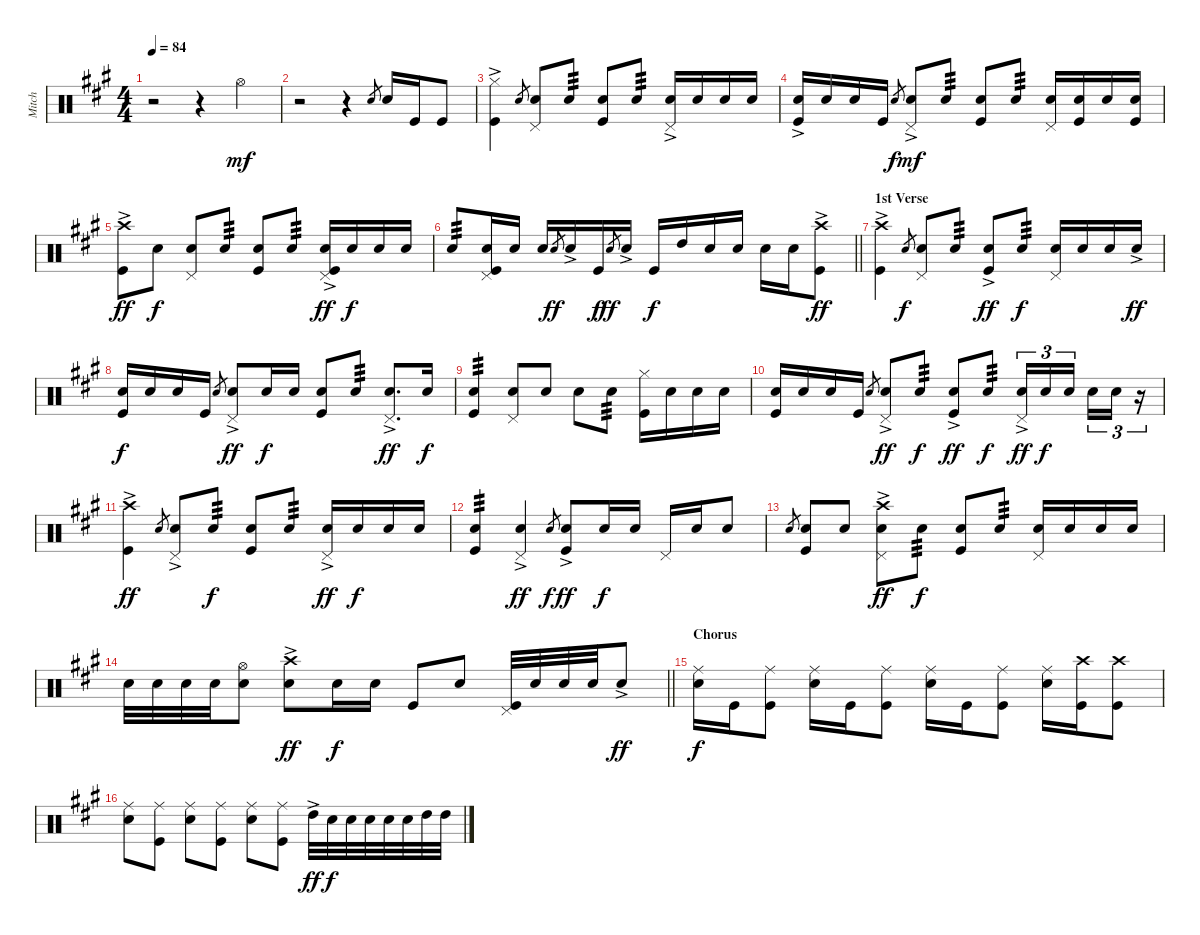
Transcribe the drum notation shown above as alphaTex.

\track ("Mitch" "Mitch") {instrument percussion}
\staff {score}
\articulation defaults
\ts (4 4)
\tempo 84
\clef neutral
\ks a
r.2{dy f} r.4 "Hi-Hat (open)".4{dy mf} |
r.2 r.4 "Snare (hit) 2".8{gr} "Snare (hit) 2".16 "Kick (hit)".16 "Kick (hit)".8 |
("Hi-Hat (closed)"{ac} "Kick (hit)").4 "Snare (hit) 2".8{gr} ("Snare (hit) 2" "Pedal Hi-Hat (hit)").8 "Snare (hit) 2".8{tp 3} ("Snare (hit) 2" "Kick (hit)").8 "Snare (hit) 2".8{tp 3} ("Snare (hit) 2"{ac} "Pedal Hi-Hat (hit)").16 "Snare (hit) 2".16 "Snare (hit) 2".16 "Snare (hit) 2".16 |
("Snare (hit) 2"{ac} "Kick (hit)").16 "Snare (hit) 2".16 "Snare (hit) 2".16 "Kick (hit)".16 "Snare (hit) 2".8{gr dy f} ("Snare (hit) 2"{ac} "Pedal Hi-Hat (hit)").8{dy mf} "Snare (hit) 2".8{tp 3} ("Snare (hit) 2" "Kick (hit)").8 "Snare (hit) 2".8{tp 3} ("Snare (hit) 2" "Pedal Hi-Hat (hit)").16 ("Snare (hit) 2" "Kick (hit)").16 "Snare (hit) 2".16 ("Snare (hit) 2" "Kick (hit)").16 |
("Crash high (hit)"{ac} "Kick (hit)").8{dy ff} "Snare (hit) 2".8{dy f} ("Snare (hit) 2" "Pedal Hi-Hat (hit)").8 "Snare (hit) 2".8{tp 3} ("Snare (hit) 2" "Kick (hit)").8 "Snare (hit) 2".8{tp 3} ("Snare (hit) 2"{ac} "Kick (hit)" "Pedal Hi-Hat (hit)").16{dy ff} "Snare (hit) 2".16{dy f} "Snare (hit) 2".16 "Snare (hit) 2".16 |
\barLineRight lightlight "Snare (hit) 2".8{tp 3}
("Snare (hit) 2" "Kick (hit)" "Pedal Hi-Hat (hit)").16 "Snare (hit) 2".16 "Snare (hit) 2".16 "Snare (hit) 2".8{gr dy ff} "Snare (hit) 2"{ac}.16 "Kick (hit)".16{dy f} "Snare (hit) 2".8{gr dy ff} "Snare (hit) 2"{ac}.16 "Kick (hit)".16{dy f} "High Tom (hit)".16 "Snare (hit) 2".16 "Snare (hit) 2".16 "Snare (hit) 2".16 "Snare (hit) 2".16 ("Crash high (hit)"{ac} "Kick (hit)").8{dy ff} |
\section ("" "1st Verse")
("Crash high (hit)"{ac} "Kick (hit)").4 "Snare (hit) 2".8{gr dy f} ("Snare (hit) 2" "Pedal Hi-Hat (hit)").8 "Snare (hit) 2".8{tp 3} ("Snare (hit) 2"{ac} "Kick (hit)").8{dy ff} "Snare (hit) 2".8{tp 3 dy f} ("Snare (hit) 2" "Pedal Hi-Hat (hit)").16 "Snare (hit) 2".16 "Snare (hit) 2".16 "Snare (hit) 2"{ac}.16{dy ff} |
("Snare (hit) 2" "Kick (hit)").16{dy f} "Snare (hit) 2".16 "Snare (hit) 2".16 "Kick (hit)".16 "Snare (hit) 2".8{gr} ("Snare (hit) 2"{ac} "Pedal Hi-Hat (hit)").8{dy ff} "Snare (hit) 2".16{dy f} "Snare (hit) 2".16 ("Snare (hit) 2" "Kick (hit)").8 "Snare (hit) 2".8{tp 3} ("Snare (hit) 2"{ac} "Pedal Hi-Hat (hit)").8{d dy ff} "Snare (hit) 2".16{dy f} |
("Snare (hit) 2" "Kick (hit)").4{tp 3} ("Snare (hit) 2" "Pedal Hi-Hat (hit)").8 "Snare (hit) 2".8 "Snare (hit) 2".8 "Snare (hit) 2".8{tp 3} ("Hi-Hat (closed)" "Kick (hit)").16 "Snare (hit) 2".16 "Snare (hit) 2".16 "Snare (hit) 2".16 |
("Snare (hit) 2" "Kick (hit)").16 "Snare (hit) 2".16 "Snare (hit) 2".16 "Kick (hit)".16 "Snare (hit) 2".8{gr} ("Snare (hit) 2"{ac} "Pedal Hi-Hat (hit)").8{dy ff} "Snare (hit) 2".8{tp 3 dy f} ("Snare (hit) 2"{ac} "Kick (hit)").8{dy ff} "Snare (hit) 2".8{tp 3 dy f} ("Snare (hit) 2"{ac} "Pedal Hi-Hat (hit)").16{tu (3 2) dy ff} "Snare (hit) 2".16{tu (3 2) dy f} "Snare (hit) 2".16{tu (3 2) beam splitsecondary} "Snare (hit) 2".16{tu (3 2)} "Snare (hit) 2".16{tu (3 2)} r.16{tu (3 2)} |
("Crash high (hit)"{ac} "Kick (hit)").4{dy ff} "Snare (hit) 2".8{gr} ("Snare (hit) 2"{ac} "Pedal Hi-Hat (hit)").8 "Snare (hit) 2".8{tp 3 dy f} ("Snare (hit) 2" "Kick (hit)").8 "Snare (hit) 2".8{tp 3} ("Snare (hit) 2"{ac} "Pedal Hi-Hat (hit)").16{dy ff} "Snare (hit) 2".16{dy f} "Snare (hit) 2".16 "Snare (hit) 2".16 |
("Snare (hit) 2" "Kick (hit)").4{tp 3} ("Snare (hit) 2"{ac} "Pedal Hi-Hat (hit)").4{dy ff} "Snare (hit) 2".8{gr dy f} ("Snare (hit) 2"{ac} "Kick (hit)").8{dy ff} "Snare (hit) 2".16{dy f} "Snare (hit) 2".16 "Pedal Hi-Hat (hit)".16 "Snare (hit) 2".16 "Snare (hit) 2".8 |
"Snare (hit) 2".8{gr} ("Snare (hit) 2" "Kick (hit)").8 "Snare (hit) 2".8 ("Crash high (hit)"{ac} "Snare (hit) 2" "Pedal Hi-Hat (hit)").8{dy ff} "Snare (hit) 2".8{tp 3 dy f} ("Snare (hit) 2" "Kick (hit)").8 "Snare (hit) 2".8{tp 3} ("Snare (hit) 2" "Pedal Hi-Hat (hit)").16 "Snare (hit) 2".16 "Snare (hit) 2".16 "Snare (hit) 2".16 |
\barLineRight lightlight "Snare (hit) 2".32 "Snare (hit) 2".32 "Snare (hit) 2".32 "Snare (hit) 2".32
("Snare (hit) 2" "Hi-Hat (open)").8 ("Crash high (hit)"{ac} "Snare (hit) 2").8{dy ff} "Snare (hit) 2".16{dy f} "Snare (hit) 2".16 "Kick (hit)".8 "Snare (hit) 2".8 ("Kick (hit)" "Pedal Hi-Hat (hit)").32 "Snare (hit) 2".32 "Snare (hit) 2".32 "Snare (hit) 2".32 "Snare (hit) 2"{ac}.8{dy ff} |
\section ("" "Chorus")
("Ride (middle)" "Snare (hit) 2").16{dy f} "Kick (hit)".16 ("Ride (middle)" "Kick (hit)").8 ("Ride (middle)" "Snare (hit) 2").16 "Kick (hit)".16 ("Ride (middle)" "Kick (hit)").8 ("Ride (middle)" "Snare (hit) 2").16 "Kick (hit)".16 ("Ride (middle)" "Kick (hit)").8 ("Ride (middle)" "Snare (hit) 2").16 ("Crash high (hit)" "Kick (hit)").16 ("Crash high (hit)" "Kick (hit)").8 |
("Ride (middle)" "Snare (hit) 2").8 ("Ride (middle)" "Kick (hit)").8 ("Ride (middle)" "Snare (hit) 2").8 ("Ride (middle)" "Kick (hit)").8 ("Ride (middle)" "Snare (hit) 2").8 ("Ride (middle)" "Kick (hit)").8 "High Tom (hit)"{ac}.32{dy ff} "Snare (hit) 2".32{dy f} "Snare (hit) 2".32 "Snare (hit) 2".32 "Snare (hit) 2".32 "Snare (hit) 2".32 "High Tom (hit)".32 "High Tom (hit)".32
